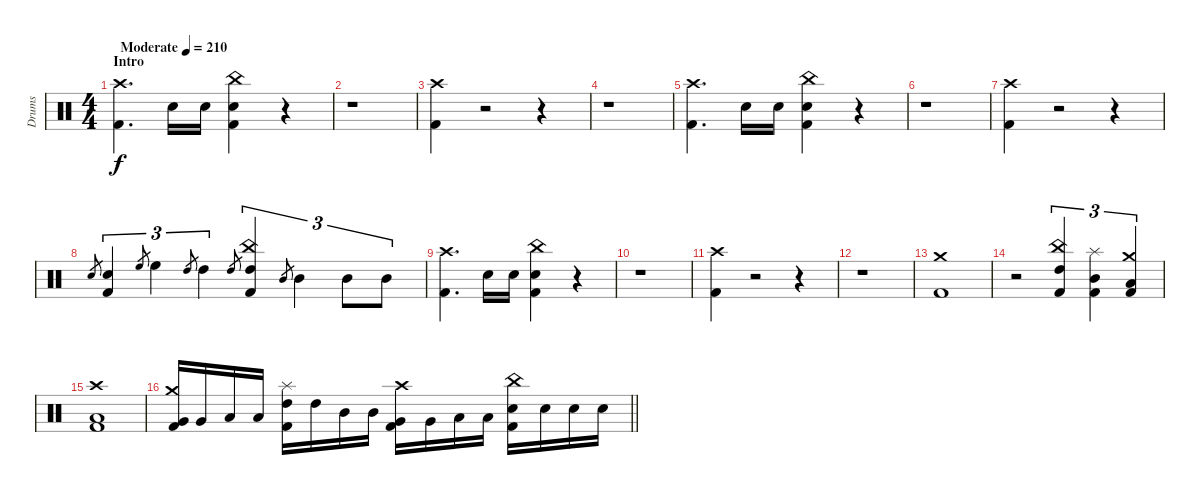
\track ("Drums" "Drums") {instrument percussion}
\staff {score}
\articulation defaults
\ts (4 4)
\section ("" "Intro")
\tempo (210 "Moderate")
\clef neutral
\ks c
("Crash high (hit)" "Kick (hit) 2").4{d dy f} "Snare (hit) 2".16 "Snare (hit) 2".16 ("China (hit)" "Snare (hit) 2" "Kick (hit) 2").4 r.4 |
r.1 |
("Crash high (hit)" "Kick (hit) 2").4 r.2 r.4 |
r.1 |
("Crash high (hit)" "Kick (hit) 2").4{d} "Snare (hit) 2".16 "Snare (hit) 2".16 ("China (hit)" "Snare (hit) 2" "Kick (hit) 2").4 r.4 |
r.1 |
("Crash high (hit)" "Kick (hit) 2").4 r.2 r.4 |
"Snare (hit) 2".8{gr} ("Snare (hit) 2" "Kick (hit) 2").4{tu (3 2)} "High Floor Tom (hit)".8{gr} "High Floor Tom (hit)".4{tu (3 2)} "High Tom (hit)".8{gr} "High Tom (hit)".4{tu (3 2)} "High Tom (hit)".8{gr} ("China (hit)" "High Tom (hit)" "Kick (hit) 2").4{tu (3 2)} "Mid Tom (hit)".8{gr} "Mid Tom (hit)".4{tu (3 2)} "Mid Tom (hit)".8{tu (3 2)} "Mid Tom (hit)".8{tu (3 2)} |
("Crash high (hit)" "Kick (hit) 2").4{d} "Snare (hit) 2".16 "Snare (hit) 2".16 ("China (hit)" "Snare (hit) 2" "Kick (hit) 2").4 r.4 |
r.1 |
("Crash high (hit)" "Kick (hit) 2").4 r.2 r.4 |
r.1 |
("Crash medium (hit)" "Kick (hit) 2").1 |
r.2 ("China (hit)" "High Tom (hit)" "Kick (hit) 2").4{tu (3 2)} ("Splash (hit)" "Mid Tom (hit)" "Kick (hit) 2").4{tu (3 2)} ("Crash medium (hit)" "Low Tom (hit)" "Kick (hit) 2").4{tu (3 2)} |
("Crash high (hit)" "Low Floor Tom (hit)" "Kick (hit) 2").1 |
\barLineRight lightlight
("Crash medium (hit)" "Very Low Tom (hit)" "Kick (hit) 2").16 "Very Low Tom (hit)".16 "Low Tom (hit)".16 "Low Tom (hit)".16 ("Splash (hit)" "High Tom (hit)" "Kick (hit) 2").16 "High Tom (hit)".16 "Mid Tom (hit)".16 "Mid Tom (hit)".16 ("Crash high (hit)" "Very Low Tom (hit)" "Kick (hit) 2").16 "Very Low Tom (hit)".16 "Low Floor Tom (hit)".16 "Low Floor Tom (hit)".16 ("China (hit)" "Snare (hit) 2" "Kick (hit) 2").16 "Snare (hit) 2".16 "Snare (hit) 2".16 "Snare (hit) 2".16
